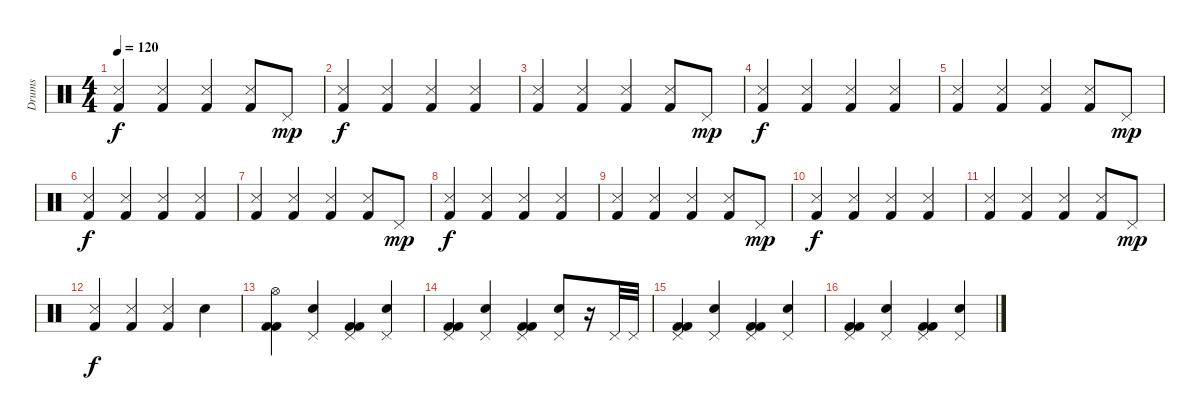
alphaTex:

\track ("Drums" "Drums") {instrument percussion}
\staff {score}
\articulation defaults
\ts (4 4)
\tempo 120
\clef neutral
\ks c
("Kick (hit) 2" "Snare (side stick) 3").4{dy f} ("Kick (hit) 2" "Snare (side stick) 3").4 ("Kick (hit) 2" "Snare (side stick) 3").4 ("Kick (hit) 2" "Snare (side stick) 3").8 "Pedal Hi-Hat (hit)".8{dy mp} |
("Kick (hit) 2" "Snare (side stick) 3").4{dy f} ("Kick (hit) 2" "Snare (side stick) 3").4 ("Kick (hit) 2" "Snare (side stick) 3").4 ("Kick (hit) 2" "Snare (side stick) 3").4 |
("Kick (hit) 2" "Snare (side stick) 3").4 ("Kick (hit) 2" "Snare (side stick) 3").4 ("Kick (hit) 2" "Snare (side stick) 3").4 ("Kick (hit) 2" "Snare (side stick) 3").8 "Pedal Hi-Hat (hit)".8{dy mp} |
("Kick (hit) 2" "Snare (side stick) 3").4{dy f} ("Kick (hit) 2" "Snare (side stick) 3").4 ("Kick (hit) 2" "Snare (side stick) 3").4 ("Kick (hit) 2" "Snare (side stick) 3").4 |
("Kick (hit) 2" "Snare (side stick) 3").4 ("Kick (hit) 2" "Snare (side stick) 3").4 ("Kick (hit) 2" "Snare (side stick) 3").4 ("Kick (hit) 2" "Snare (side stick) 3").8 "Pedal Hi-Hat (hit)".8{dy mp} |
("Kick (hit) 2" "Snare (side stick) 3").4{dy f} ("Kick (hit) 2" "Snare (side stick) 3").4 ("Kick (hit) 2" "Snare (side stick) 3").4 ("Kick (hit) 2" "Snare (side stick) 3").4 |
("Kick (hit) 2" "Snare (side stick) 3").4 ("Kick (hit) 2" "Snare (side stick) 3").4 ("Kick (hit) 2" "Snare (side stick) 3").4 ("Kick (hit) 2" "Snare (side stick) 3").8 "Pedal Hi-Hat (hit)".8{dy mp} |
("Kick (hit) 2" "Snare (side stick) 3").4{dy f} ("Kick (hit) 2" "Snare (side stick) 3").4 ("Kick (hit) 2" "Snare (side stick) 3").4 ("Kick (hit) 2" "Snare (side stick) 3").4 |
("Kick (hit) 2" "Snare (side stick) 3").4 ("Kick (hit) 2" "Snare (side stick) 3").4 ("Kick (hit) 2" "Snare (side stick) 3").4 ("Kick (hit) 2" "Snare (side stick) 3").8 "Pedal Hi-Hat (hit)".8{dy mp} |
("Kick (hit) 2" "Snare (side stick) 3").4{dy f} ("Kick (hit) 2" "Snare (side stick) 3").4 ("Kick (hit) 2" "Snare (side stick) 3").4 ("Kick (hit) 2" "Snare (side stick) 3").4 |
("Kick (hit) 2" "Snare (side stick) 3").4 ("Kick (hit) 2" "Snare (side stick) 3").4 ("Kick (hit) 2" "Snare (side stick) 3").4 ("Kick (hit) 2" "Snare (side stick) 3").8 "Pedal Hi-Hat (hit)".8{dy mp} |
("Kick (hit) 2" "Snare (side stick) 3").4{dy f} ("Kick (hit) 2" "Snare (side stick) 3").4 ("Kick (hit) 2" "Snare (side stick) 3").4 "Snare (hit) 2".4 |
("Hi-Hat (open)" "Kick (hit) 2" "Kick (hit) 2").4 ("Pedal Hi-Hat (hit)" "Snare (hit) 2").4 ("Pedal Hi-Hat (hit)" "Kick (hit) 2" "Kick (hit) 2").4 ("Pedal Hi-Hat (hit)" "Snare (hit) 2").4 |
("Pedal Hi-Hat (hit)" "Kick (hit) 2" "Kick (hit) 2").4 ("Pedal Hi-Hat (hit)" "Snare (hit) 2").4 ("Pedal Hi-Hat (hit)" "Kick (hit) 2" "Kick (hit) 2").4 ("Pedal Hi-Hat (hit)" "Snare (hit) 2").8 r.16 "Pedal Hi-Hat (hit)".32 "Pedal Hi-Hat (hit)".32 |
("Pedal Hi-Hat (hit)" "Kick (hit) 2" "Kick (hit) 2").4 ("Pedal Hi-Hat (hit)" "Snare (hit) 2").4 ("Pedal Hi-Hat (hit)" "Kick (hit) 2" "Kick (hit) 2").4 ("Pedal Hi-Hat (hit)" "Snare (hit) 2").4 |
("Pedal Hi-Hat (hit)" "Kick (hit) 2" "Kick (hit) 2").4 ("Pedal Hi-Hat (hit)" "Snare (hit) 2").4 ("Pedal Hi-Hat (hit)" "Kick (hit) 2" "Kick (hit) 2").4 ("Pedal Hi-Hat (hit)" "Snare (hit) 2").4
